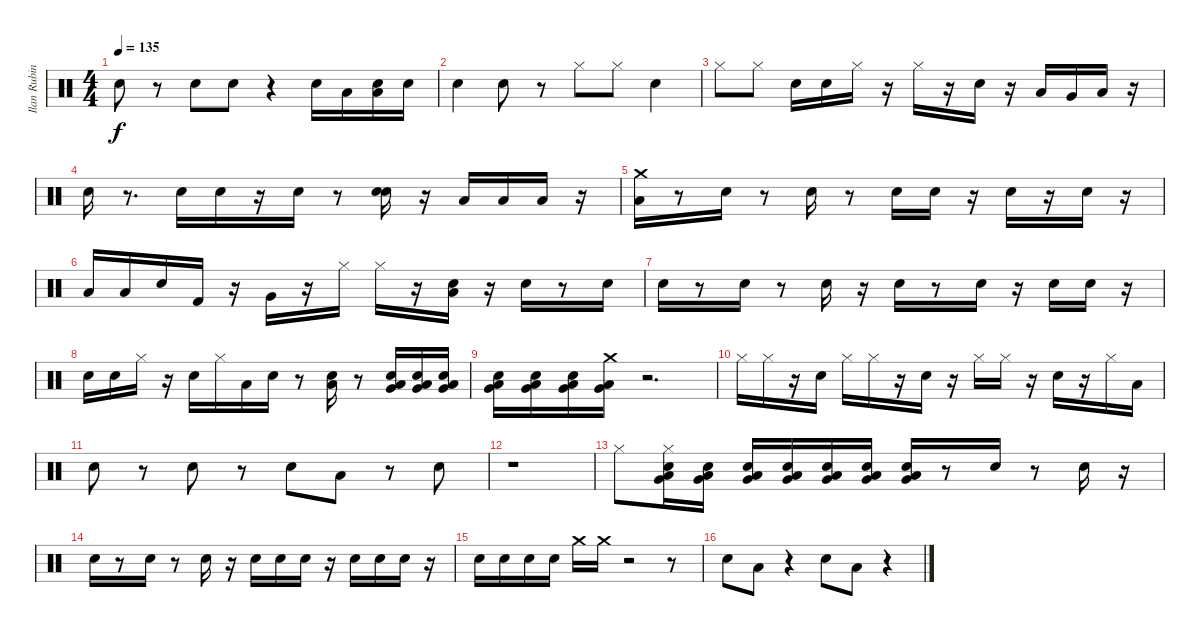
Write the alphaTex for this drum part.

\track ("Ilan Rubin" "Ilan Rubin") {instrument percussion}
\staff {score}
\articulation defaults
\ts (4 4)
\tempo 135
\clef neutral
\ks c "Electric Snare (hit)".8{dy f}
r.8 "Snare (hit) 2".8 "Electric Snare (hit)".8 r.4 "Electric Snare (hit)".16 "Low Tom (hit)".16 ("Electric Snare (hit)" "Low Tom (hit)").16 "Electric Snare (hit)".16 |
"Electric Snare (hit)".4 "Electric Snare (hit)".8 r.8 "Hi-Hat (closed)".8 "Hi-Hat (closed)".8 "Electric Snare (hit)".4 |
"Hi-Hat (closed)".8 "Hi-Hat (closed)".8 "Electric Snare (hit)".16 "Electric Snare (hit)".16 "Hi-Hat (closed)".16 r.16 "Hi-Hat (closed)".16 r.16 "Snare (hit) 2".16 r.16 "Low Tom (hit)".16 "Very Low Tom (hit)".16 "Low Tom (hit)".16 r.16 |
"Electric Snare (hit)".16 r.8{d} "Electric Snare (hit)".16 "Electric Snare (hit)".16 r.16 "Electric Snare (hit)".16 r.8 ("Electric Snare (hit)" "Snare (hit) 2").16 r.16 "Low Tom (hit)".16 "Low Tom (hit)".16 "Low Tom (hit)".16 r.16 |
("Crash medium (hit)" "Low Tom (hit)").16 r.8 "Electric Snare (hit)".16 r.8 "Electric Snare (hit)".16 r.8 "Electric Snare (hit)".16 "Electric Snare (hit)".16 r.16 "Electric Snare (hit)".16 r.16 "Electric Snare (hit)".16 r.16 |
"Low Tom (hit)".16 "Low Tom (hit)".16 "Electric Snare (hit)".16 "Kick (hit) 2".16 r.16 "Very Low Tom (hit)".16 r.16 "Hi-Hat (closed)".16 "Hi-Hat (closed)".16 r.16 ("Electric Snare (hit)" "Low Tom (hit)").16 r.16 "Electric Snare (hit)".16 r.8 "Electric Snare (hit)".16 |
"Electric Snare (hit)".16 r.8 "Electric Snare (hit)".16 r.8 "Electric Snare (hit)".16 r.16 "Electric Snare (hit)".16 r.8 "Electric Snare (hit)".16 r.16 "Electric Snare (hit)".16 "Electric Snare (hit)".16 r.16 |
"Electric Snare (hit)".16 "Electric Snare (hit)".16 "Hi-Hat (closed)".16 r.16 "Electric Snare (hit)".16 "Hi-Hat (closed)".16 "Low Tom (hit)".16 "Electric Snare (hit)".16 r.8 ("Electric Snare (hit)" "Low Tom (hit)").16 r.8 ("Electric Snare (hit)" "Low Tom (hit)" "Very Low Tom (hit)").16 ("Snare (hit) 2" "Low Tom (hit)" "Very Low Tom (hit)").16 ("Electric Snare (hit)" "Low Tom (hit)" "Very Low Tom (hit)").16 |
("Snare (hit) 2" "Low Tom (hit)" "Very Low Tom (hit)").16 ("Snare (hit) 2" "Low Tom (hit)" "Very Low Tom (hit)").16 ("Electric Snare (hit)" "Low Tom (hit)" "Very Low Tom (hit)").16 ("Crash medium (hit)" "Low Tom (hit)" "Very Low Tom (hit)").16 r.2{d} |
"Hi-Hat (closed)".16 "Hi-Hat (closed)".16 r.16 "Snare (hit) 2".16 "Hi-Hat (closed)".16 "Hi-Hat (closed)".16 r.16 "Snare (hit) 2".16 r.16 "Hi-Hat (closed)".16 "Hi-Hat (closed)".16 r.16 "Snare (hit) 2".16 r.16 "Hi-Hat (closed)".16 "Low Tom (hit)".16 |
"Electric Snare (hit)".8 r.8 "Electric Snare (hit)".8 r.8 "Electric Snare (hit)".8 "Low Tom (hit)".8 r.8 "Snare (hit) 2".8 |
r.1 |
"Hi-Hat (closed)".8 ("Hi-Hat (closed)" "Snare (hit) 2" "Very Low Tom (hit)" "Low Tom (hit)").16 ("Electric Snare (hit)" "Very Low Tom (hit)" "Low Tom (hit)").16 ("Electric Snare (hit)" "Very Low Tom (hit)" "Low Tom (hit)").16 ("Snare (hit) 2" "Very Low Tom (hit)" "Low Tom (hit)").16 ("Electric Snare (hit)" "Very Low Tom (hit)" "Low Tom (hit)").16 ("Snare (hit) 2" "Very Low Tom (hit)" "Low Tom (hit)").16 ("Electric Snare (hit)" "Very Low Tom (hit)" "Low Tom (hit)").16 r.8 "Electric Snare (hit)".16 r.8 "Electric Snare (hit)".16 r.16 |
"Electric Snare (hit)".16 r.8 "Electric Snare (hit)".16 r.8 "Electric Snare (hit)".16 r.16 "Electric Snare (hit)".16 "Electric Snare (hit)".16 "Electric Snare (hit)".16 r.16 "Electric Snare (hit)".16 "Electric Snare (hit)".16 "Electric Snare (hit)".16 r.16 |
"Electric Snare (hit)".16 "Electric Snare (hit)".16 "Electric Snare (hit)".16 "Electric Snare (hit)".16 "Crash medium (hit)".16 "Crash medium (hit)".16 r.2 r.8 |
"Electric Snare (hit)".8 "Low Tom (hit)".8 r.4 "Electric Snare (hit)".8 "Low Tom (hit)".8 r.4
